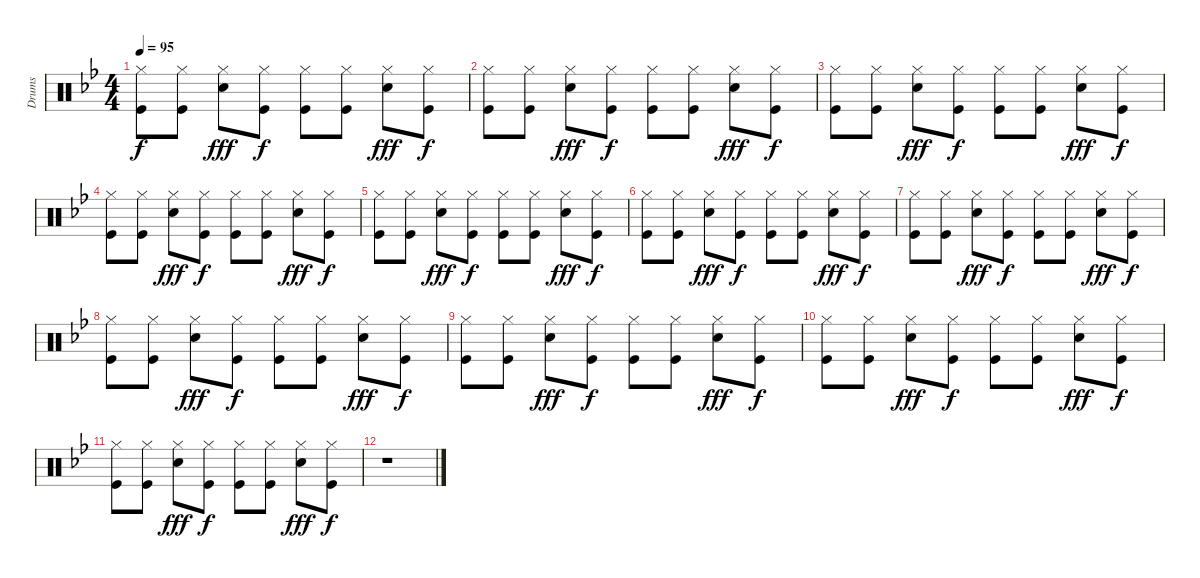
\track ("Drums" "Drums") {instrument percussion}
\staff {score}
\articulation defaults
\ts (4 4)
\tempo 95
\clef neutral
\ks gminor
("Hi-Hat (closed)" "Kick (hit)").8{dy f} ("Hi-Hat (closed)" "Kick (hit)").8 ("Hi-Hat (closed)" "Electric Snare (hit)").8{dy fff} ("Hi-Hat (closed)" "Kick (hit)").8{dy f} ("Hi-Hat (closed)" "Kick (hit)").8 ("Hi-Hat (closed)" "Kick (hit)").8 ("Hi-Hat (closed)" "Electric Snare (hit)").8{dy fff} ("Hi-Hat (closed)" "Kick (hit)").8{dy f} |
("Hi-Hat (closed)" "Kick (hit)").8 ("Hi-Hat (closed)" "Kick (hit)").8 ("Hi-Hat (closed)" "Electric Snare (hit)").8{dy fff} ("Hi-Hat (closed)" "Kick (hit)").8{dy f} ("Hi-Hat (closed)" "Kick (hit)").8 ("Hi-Hat (closed)" "Kick (hit)").8 ("Hi-Hat (closed)" "Electric Snare (hit)").8{dy fff} ("Hi-Hat (closed)" "Kick (hit)").8{dy f} |
("Hi-Hat (closed)" "Kick (hit)").8 ("Hi-Hat (closed)" "Kick (hit)").8 ("Hi-Hat (closed)" "Electric Snare (hit)").8{dy fff} ("Hi-Hat (closed)" "Kick (hit)").8{dy f} ("Hi-Hat (closed)" "Kick (hit)").8 ("Hi-Hat (closed)" "Kick (hit)").8 ("Hi-Hat (closed)" "Electric Snare (hit)").8{dy fff} ("Hi-Hat (closed)" "Kick (hit)").8{dy f} |
("Hi-Hat (closed)" "Kick (hit)").8 ("Hi-Hat (closed)" "Kick (hit)").8 ("Hi-Hat (closed)" "Electric Snare (hit)").8{dy fff} ("Hi-Hat (closed)" "Kick (hit)").8{dy f} ("Hi-Hat (closed)" "Kick (hit)").8 ("Hi-Hat (closed)" "Kick (hit)").8 ("Hi-Hat (closed)" "Electric Snare (hit)").8{dy fff} ("Hi-Hat (closed)" "Kick (hit)").8{dy f} |
("Hi-Hat (closed)" "Kick (hit)").8 ("Hi-Hat (closed)" "Kick (hit)").8 ("Hi-Hat (closed)" "Electric Snare (hit)").8{dy fff} ("Hi-Hat (closed)" "Kick (hit)").8{dy f} ("Hi-Hat (closed)" "Kick (hit)").8 ("Hi-Hat (closed)" "Kick (hit)").8 ("Hi-Hat (closed)" "Electric Snare (hit)").8{dy fff} ("Hi-Hat (closed)" "Kick (hit)").8{dy f} |
("Hi-Hat (closed)" "Kick (hit)").8 ("Hi-Hat (closed)" "Kick (hit)").8 ("Hi-Hat (closed)" "Electric Snare (hit)").8{dy fff} ("Hi-Hat (closed)" "Kick (hit)").8{dy f} ("Hi-Hat (closed)" "Kick (hit)").8 ("Hi-Hat (closed)" "Kick (hit)").8 ("Hi-Hat (closed)" "Electric Snare (hit)").8{dy fff} ("Hi-Hat (closed)" "Kick (hit)").8{dy f} |
("Hi-Hat (closed)" "Kick (hit)").8 ("Hi-Hat (closed)" "Kick (hit)").8 ("Hi-Hat (closed)" "Electric Snare (hit)").8{dy fff} ("Hi-Hat (closed)" "Kick (hit)").8{dy f} ("Hi-Hat (closed)" "Kick (hit)").8 ("Hi-Hat (closed)" "Kick (hit)").8 ("Hi-Hat (closed)" "Electric Snare (hit)").8{dy fff} ("Hi-Hat (closed)" "Kick (hit)").8{dy f} |
("Hi-Hat (closed)" "Kick (hit)").8 ("Hi-Hat (closed)" "Kick (hit)").8 ("Hi-Hat (closed)" "Electric Snare (hit)").8{dy fff} ("Hi-Hat (closed)" "Kick (hit)").8{dy f} ("Hi-Hat (closed)" "Kick (hit)").8 ("Hi-Hat (closed)" "Kick (hit)").8 ("Hi-Hat (closed)" "Electric Snare (hit)").8{dy fff} ("Hi-Hat (closed)" "Kick (hit)").8{dy f} |
("Hi-Hat (closed)" "Kick (hit)").8 ("Hi-Hat (closed)" "Kick (hit)").8 ("Hi-Hat (closed)" "Electric Snare (hit)").8{dy fff} ("Hi-Hat (closed)" "Kick (hit)").8{dy f} ("Hi-Hat (closed)" "Kick (hit)").8 ("Hi-Hat (closed)" "Kick (hit)").8 ("Hi-Hat (closed)" "Electric Snare (hit)").8{dy fff} ("Hi-Hat (closed)" "Kick (hit)").8{dy f} |
("Hi-Hat (closed)" "Kick (hit)").8 ("Hi-Hat (closed)" "Kick (hit)").8 ("Hi-Hat (closed)" "Electric Snare (hit)").8{dy fff} ("Hi-Hat (closed)" "Kick (hit)").8{dy f} ("Hi-Hat (closed)" "Kick (hit)").8 ("Hi-Hat (closed)" "Kick (hit)").8 ("Hi-Hat (closed)" "Electric Snare (hit)").8{dy fff} ("Hi-Hat (closed)" "Kick (hit)").8{dy f} |
("Hi-Hat (closed)" "Kick (hit)").8 ("Hi-Hat (closed)" "Kick (hit)").8 ("Hi-Hat (closed)" "Electric Snare (hit)").8{dy fff} ("Hi-Hat (closed)" "Kick (hit)").8{dy f} ("Hi-Hat (closed)" "Kick (hit)").8 ("Hi-Hat (closed)" "Kick (hit)").8 ("Hi-Hat (closed)" "Electric Snare (hit)").8{dy fff} ("Hi-Hat (closed)" "Kick (hit)").8{dy f} |
r.1
